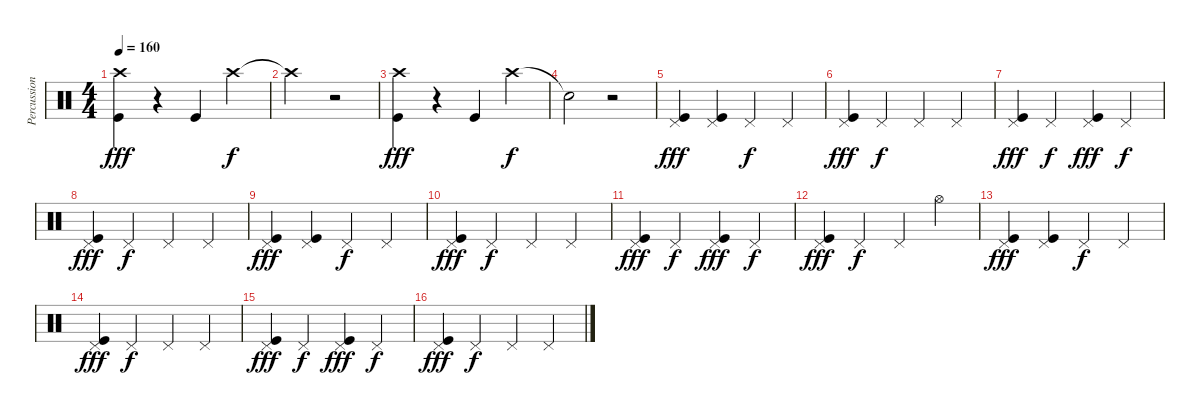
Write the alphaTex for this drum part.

\track ("Percussion" "Percussion") {solo instrument percussion}
\staff {score}
\articulation defaults
\ts (4 4)
\tempo 160
\clef neutral
\ks c
("Crash high (hit)" "Kick (hit)").4{dy fff} r.4 "Kick (hit)".4 "Crash high (hit)".4{dy f} |
"Crash high (hit)"{t}.2 r.2 |
("Crash high (hit)" "Kick (hit)").4{dy fff} r.4 "Kick (hit)".4 "Crash high (hit)".4{dy f} |
"Snare (hit)"{t}.2 r.2 |
("Pedal Hi-Hat (hit)" "Kick (hit)").4{dy fff} ("Pedal Hi-Hat (hit)" "Kick (hit)").4 "Pedal Hi-Hat (hit)".4{dy f} "Pedal Hi-Hat (hit)".4 |
("Pedal Hi-Hat (hit)" "Kick (hit)").4{dy fff} "Pedal Hi-Hat (hit)".4{dy f} "Pedal Hi-Hat (hit)".4 "Pedal Hi-Hat (hit)".4 |
("Pedal Hi-Hat (hit)" "Kick (hit)").4{dy fff} "Pedal Hi-Hat (hit)".4{dy f} ("Pedal Hi-Hat (hit)" "Kick (hit)").4{dy fff} "Pedal Hi-Hat (hit)".4{dy f} |
("Pedal Hi-Hat (hit)" "Kick (hit)").4{dy fff} "Pedal Hi-Hat (hit)".4{dy f} "Pedal Hi-Hat (hit)".4 "Pedal Hi-Hat (hit)".4 |
("Pedal Hi-Hat (hit)" "Kick (hit)").4{dy fff} ("Pedal Hi-Hat (hit)" "Kick (hit)").4 "Pedal Hi-Hat (hit)".4{dy f} "Pedal Hi-Hat (hit)".4 |
("Pedal Hi-Hat (hit)" "Kick (hit)").4{dy fff} "Pedal Hi-Hat (hit)".4{dy f} "Pedal Hi-Hat (hit)".4 "Pedal Hi-Hat (hit)".4 |
("Pedal Hi-Hat (hit)" "Kick (hit)").4{dy fff} "Pedal Hi-Hat (hit)".4{dy f} ("Pedal Hi-Hat (hit)" "Kick (hit)").4{dy fff} "Pedal Hi-Hat (hit)".4{dy f} |
("Pedal Hi-Hat (hit)" "Kick (hit)").4{dy fff} "Pedal Hi-Hat (hit)".4{dy f} "Pedal Hi-Hat (hit)".4 "Hi-Hat (open)".4 |
("Pedal Hi-Hat (hit)" "Kick (hit)").4{dy fff} ("Pedal Hi-Hat (hit)" "Kick (hit)").4 "Pedal Hi-Hat (hit)".4{dy f} "Pedal Hi-Hat (hit)".4 |
("Pedal Hi-Hat (hit)" "Kick (hit)").4{dy fff} "Pedal Hi-Hat (hit)".4{dy f} "Pedal Hi-Hat (hit)".4 "Pedal Hi-Hat (hit)".4 |
("Pedal Hi-Hat (hit)" "Kick (hit)").4{dy fff} "Pedal Hi-Hat (hit)".4{dy f} ("Pedal Hi-Hat (hit)" "Kick (hit)").4{dy fff} "Pedal Hi-Hat (hit)".4{dy f} |
("Pedal Hi-Hat (hit)" "Kick (hit)").4{dy fff} "Pedal Hi-Hat (hit)".4{dy f} "Pedal Hi-Hat (hit)".4 "Pedal Hi-Hat (hit)".4
